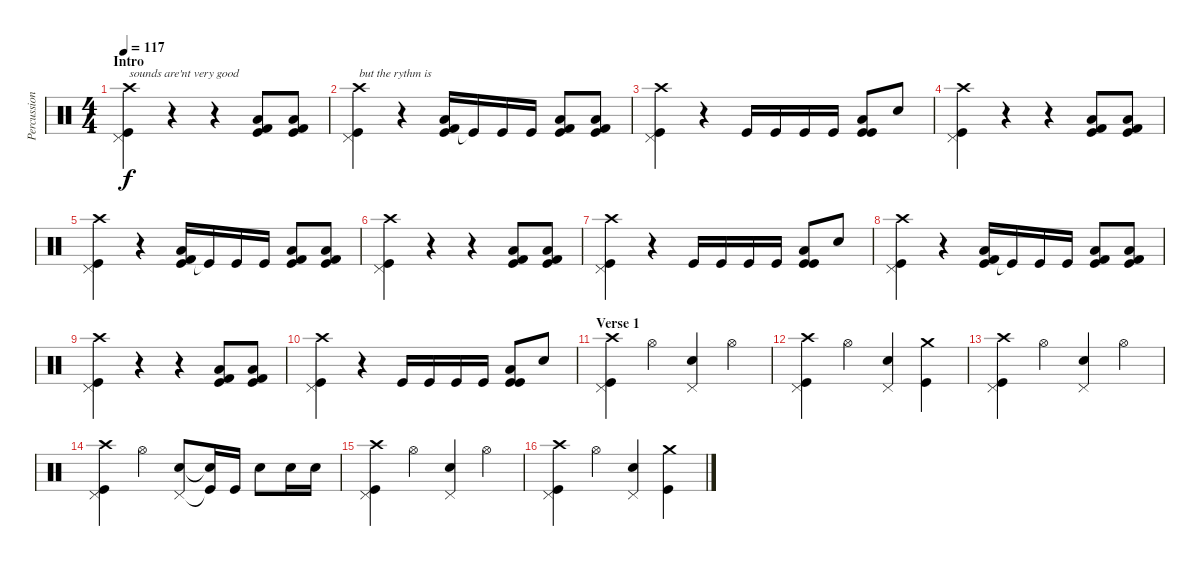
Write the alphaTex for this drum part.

\track ("Percussions" "Percussion") {instrument percussion}
\staff {score}
\articulation defaults
\ts (4 4)
\section ("" "Intro")
\tempo 117
\clef neutral
\ks c
("Crash high (hit)" "Pedal Hi-Hat (hit)" "Kick (hit)").4{txt "sounds are'nt very good" dy f} r.4 r.4 ("Kick (hit)" "Kick (hit) 2" "Low Floor Tom (hit)").8 ("Kick (hit)" "Kick (hit) 2" "Low Floor Tom (hit)").8 |
("Crash high (hit)" "Pedal Hi-Hat (hit)" "Kick (hit)").4{txt "but the rythm is"} r.4 ("Kick (hit) 2" "Kick (hit)" "Low Floor Tom (hit)").16 "Kick (hit)"{t}.16 "Kick (hit)".16 "Kick (hit)".16 ("Kick (hit)" "Kick (hit) 2" "Low Floor Tom (hit)").8 ("Kick (hit)" "Kick (hit) 2" "Low Floor Tom (hit)").8 |
("Crash high (hit)" "Pedal Hi-Hat (hit)" "Kick (hit)").4 r.4 "Kick (hit)".16 "Kick (hit)".16 "Kick (hit)".16 "Kick (hit)".16 ("Kick (hit)" "Kick (hit)" "Low Floor Tom (hit)").8 "Electric Snare (hit)".8 |
("Crash high (hit)" "Pedal Hi-Hat (hit)" "Kick (hit)").4 r.4 r.4 ("Kick (hit)" "Kick (hit) 2" "Low Floor Tom (hit)").8 ("Kick (hit)" "Kick (hit) 2" "Low Floor Tom (hit)").8 |
("Crash high (hit)" "Pedal Hi-Hat (hit)" "Kick (hit)").4 r.4 ("Kick (hit) 2" "Kick (hit)" "Low Floor Tom (hit)").16 "Kick (hit)"{t}.16 "Kick (hit)".16 "Kick (hit)".16 ("Kick (hit)" "Kick (hit) 2" "Low Floor Tom (hit)").8 ("Kick (hit)" "Kick (hit) 2" "Low Floor Tom (hit)").8 |
("Crash high (hit)" "Pedal Hi-Hat (hit)" "Kick (hit)").4 r.4 r.4 ("Kick (hit)" "Kick (hit) 2" "Low Floor Tom (hit)").8 ("Kick (hit)" "Kick (hit) 2" "Low Floor Tom (hit)").8 |
("Crash high (hit)" "Pedal Hi-Hat (hit)" "Kick (hit)").4 r.4 "Kick (hit)".16 "Kick (hit)".16 "Kick (hit)".16 "Kick (hit)".16 ("Kick (hit)" "Kick (hit)" "Low Floor Tom (hit)").8 "Electric Snare (hit)".8 |
("Crash high (hit)" "Pedal Hi-Hat (hit)" "Kick (hit)").4 r.4 ("Kick (hit) 2" "Kick (hit)" "Low Floor Tom (hit)").16 "Kick (hit)"{t}.16 "Kick (hit)".16 "Kick (hit)".16 ("Kick (hit)" "Kick (hit) 2" "Low Floor Tom (hit)").8 ("Kick (hit)" "Kick (hit) 2" "Low Floor Tom (hit)").8 |
("Crash high (hit)" "Pedal Hi-Hat (hit)" "Kick (hit)").4 r.4 r.4 ("Kick (hit)" "Kick (hit) 2" "Low Floor Tom (hit)").8 ("Kick (hit)" "Kick (hit) 2" "Low Floor Tom (hit)").8 |
("Crash high (hit)" "Pedal Hi-Hat (hit)" "Kick (hit)").4 r.4 "Kick (hit)".16 "Kick (hit)".16 "Kick (hit)".16 "Kick (hit)".16 ("Kick (hit)" "Kick (hit)" "Low Floor Tom (hit)").8 "Electric Snare (hit)".8 |
\section ("" "Verse 1")
("Crash high (hit)" "Kick (hit)" "Pedal Hi-Hat (hit)").4 "Hi-Hat (open)".4 ("Pedal Hi-Hat (hit)" "Electric Snare (hit)").4 "Hi-Hat (open)".4 |
("Crash high (hit)" "Kick (hit)" "Pedal Hi-Hat (hit)").4 "Hi-Hat (open)".4 ("Pedal Hi-Hat (hit)" "Electric Snare (hit)").4 ("Crash medium (hit)" "Kick (hit)").4 |
("Crash high (hit)" "Kick (hit)" "Pedal Hi-Hat (hit)").4 "Hi-Hat (open)".4 ("Pedal Hi-Hat (hit)" "Electric Snare (hit)").4 "Hi-Hat (open)".4 |
("Crash high (hit)" "Kick (hit)" "Pedal Hi-Hat (hit)").4 "Hi-Hat (open)".4 ("Pedal Hi-Hat (hit)" "Electric Snare (hit)").8 ("Kick (hit)"{t} "Snare (hit)"{t}).16 "Kick (hit)".16 "Electric Snare (hit)".8 "Electric Snare (hit)".16 "Electric Snare (hit)".16 |
("Crash high (hit)" "Kick (hit)" "Pedal Hi-Hat (hit)").4 "Hi-Hat (open)".4 ("Pedal Hi-Hat (hit)" "Electric Snare (hit)").4 "Hi-Hat (open)".4 |
("Crash high (hit)" "Kick (hit)" "Pedal Hi-Hat (hit)").4 "Hi-Hat (open)".4 ("Pedal Hi-Hat (hit)" "Electric Snare (hit)").4 ("Crash medium (hit)" "Kick (hit)").4
